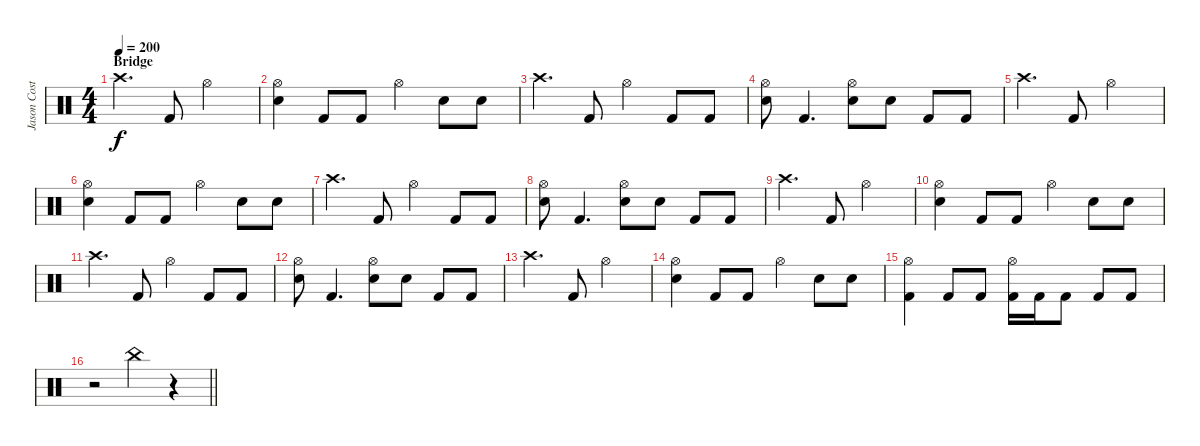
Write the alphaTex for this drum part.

\track ("Jason Costa" "Jason Cost") {instrument percussion}
\staff {score}
\articulation defaults
\ts (4 4)
\section ("" "Bridge")
\tempo 200
\clef neutral
\ks c "Crash high (hit)".4{d dy f} "Kick (hit) 2".8 "Hi-Hat (open)".2
|
("Hi-Hat (open)" "Electric Snare (hit)").4 "Kick (hit) 2".8 "Kick (hit) 2".8 "Hi-Hat (open)".4 "Electric Snare (hit)".8 "Electric Snare (hit)".8 |
"Crash high (hit)".4{d} "Kick (hit) 2".8 "Hi-Hat (open)".4 "Kick (hit) 2".8 "Kick (hit) 2".8 |
("Hi-Hat (open)" "Electric Snare (hit)").8 "Kick (hit) 2".4{d} ("Hi-Hat (open)" "Electric Snare (hit)").8 "Electric Snare (hit)".8 "Kick (hit) 2".8 "Kick (hit) 2".8 |
"Crash high (hit)".4{d} "Kick (hit) 2".8 "Hi-Hat (open)".2 |
("Hi-Hat (open)" "Electric Snare (hit)").4 "Kick (hit) 2".8 "Kick (hit) 2".8 "Hi-Hat (open)".4 "Electric Snare (hit)".8 "Electric Snare (hit)".8 |
"Crash high (hit)".4{d} "Kick (hit) 2".8 "Hi-Hat (open)".4 "Kick (hit) 2".8 "Kick (hit) 2".8 |
("Hi-Hat (open)" "Electric Snare (hit)").8 "Kick (hit) 2".4{d} ("Hi-Hat (open)" "Electric Snare (hit)").8 "Electric Snare (hit)".8 "Kick (hit) 2".8 "Kick (hit) 2".8 |
"Crash high (hit)".4{d} "Kick (hit) 2".8 "Hi-Hat (open)".2 |
("Hi-Hat (open)" "Electric Snare (hit)").4 "Kick (hit) 2".8 "Kick (hit) 2".8 "Hi-Hat (open)".4 "Electric Snare (hit)".8 "Electric Snare (hit)".8 |
"Crash high (hit)".4{d} "Kick (hit) 2".8 "Hi-Hat (open)".4 "Kick (hit) 2".8 "Kick (hit) 2".8 |
("Hi-Hat (open)" "Electric Snare (hit)").8 "Kick (hit) 2".4{d} ("Hi-Hat (open)" "Electric Snare (hit)").8 "Electric Snare (hit)".8 "Kick (hit) 2".8 "Kick (hit) 2".8 |
"Crash high (hit)".4{d} "Kick (hit) 2".8 "Hi-Hat (open)".2 |
("Hi-Hat (open)" "Electric Snare (hit)").4 "Kick (hit) 2".8 "Kick (hit) 2".8 "Hi-Hat (open)".4 "Electric Snare (hit)".8 "Electric Snare (hit)".8 |
("Hi-Hat (open)" "Kick (hit) 2").4 "Kick (hit) 2".8 "Kick (hit) 2".8 ("Hi-Hat (open)" "Kick (hit) 2").16 "Kick (hit) 2".16 "Kick (hit) 2".8 "Kick (hit) 2".8 "Kick (hit) 2".8 |
\barLineRight lightlight
r.2 "China (hit)".4 r.4
